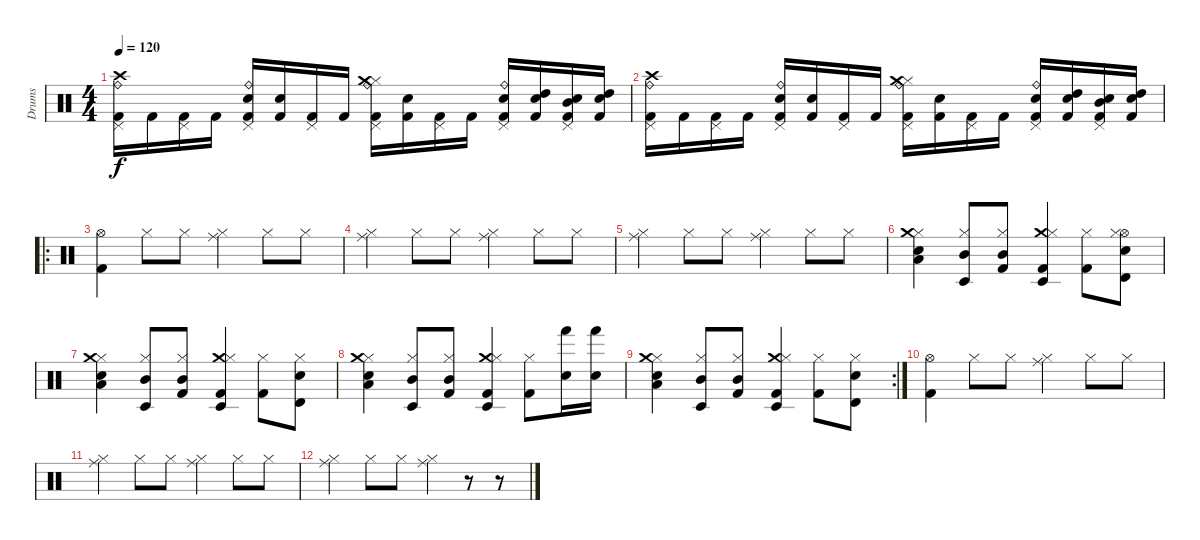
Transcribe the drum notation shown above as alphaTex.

\track ("Drums" "Drums") {instrument percussion}
\staff {score}
\articulation defaults
\ts (4 4)
\tempo 120
\clef neutral
\ks c
("Pedal Hi-Hat (hit)" "Ride (bell)" "Kick (hit) 2" "Crash high (hit)").16{dy f} "Kick (hit) 2".16 ("Pedal Hi-Hat (hit)" "Kick (hit) 2").16 "Kick (hit) 2".16 ("Electric Snare (hit)" "Ride (bell)" "Kick (hit) 2" "Pedal Hi-Hat (hit)").16 ("Electric Snare (hit)" "Kick (hit) 2").16 ("Kick (hit) 2" "Pedal Hi-Hat (hit)").16 "Kick (hit) 2".16 ("Hi-Hat (closed)" "Ride (bell)" "Kick (hit) 2" "Pedal Hi-Hat (hit)" "Crash medium (hit)").16 ("Electric Snare (hit)" "Kick (hit) 2").16 ("Kick (hit) 2" "Pedal Hi-Hat (hit)").16 "Kick (hit) 2".16 ("Electric Snare (hit)" "Ride (bell)" "Kick (hit) 2" "Pedal Hi-Hat (hit)").16 ("Electric Snare (hit)" "High Tom (hit)" "Kick (hit) 2").16 ("Electric Snare (hit)" "Mid Tom (hit)" "Kick (hit) 2" "Pedal Hi-Hat (hit)").16 ("Electric Snare (hit)" "High Tom (hit)" "Kick (hit) 2").16 |
("Pedal Hi-Hat (hit)" "Ride (bell)" "Kick (hit) 2" "Crash high (hit)").16 "Kick (hit) 2".16 ("Pedal Hi-Hat (hit)" "Kick (hit) 2").16 "Kick (hit) 2".16 ("Electric Snare (hit)" "Ride (bell)" "Kick (hit) 2" "Pedal Hi-Hat (hit)").16 ("Electric Snare (hit)" "Kick (hit) 2").16 ("Kick (hit) 2" "Pedal Hi-Hat (hit)").16 "Kick (hit) 2".16 ("Hi-Hat (closed)" "Ride (bell)" "Kick (hit) 2" "Pedal Hi-Hat (hit)" "Crash medium (hit)").16 ("Electric Snare (hit)" "Kick (hit) 2").16 ("Kick (hit) 2" "Pedal Hi-Hat (hit)").16 "Kick (hit) 2".16 ("Electric Snare (hit)" "Ride (bell)" "Kick (hit) 2" "Pedal Hi-Hat (hit)").16 ("Electric Snare (hit)" "High Tom (hit)" "Kick (hit) 2").16 ("Electric Snare (hit)" "Mid Tom (hit)" "Kick (hit) 2" "Pedal Hi-Hat (hit)").16 ("Electric Snare (hit)" "High Tom (hit)" "Kick (hit) 2").16 |
\ro
("Hi-Hat (open)" "Kick (hit) 2").4 "Hi-Hat (closed)".8 "Hi-Hat (closed)".8 ("Hi-Hat (closed)" "Ride (middle)").4 "Hi-Hat (closed)".8 "Hi-Hat (closed)".8 |
("Hi-Hat (closed)" "Ride (middle)").4 "Hi-Hat (closed)".8 "Hi-Hat (closed)".8 ("Hi-Hat (closed)" "Ride (middle)").4 "Hi-Hat (closed)".8 "Hi-Hat (closed)".8 |
("Hi-Hat (closed)" "Ride (middle)").4 "Hi-Hat (closed)".8 "Hi-Hat (closed)".8 ("Hi-Hat (closed)" "Ride (middle)").4 "Hi-Hat (closed)".8 "Hi-Hat (closed)".8 |
("Hi-Hat (closed)" "Low Tom (hit)" "Crash medium (hit)" "Electric Snare (hit)").4 ("Timbale low (hit)" "Hi-Hat (closed)" "Mid Tom (hit)").8 ("Kick (hit) 2" "Hi-Hat (closed)" "Mid Tom (hit)").8 ("Crash medium (hit)" "Hi-Hat (closed)" "Kick (hit) 2" "Timbale low (hit)").4 ("Hi-Hat (closed)" "Kick (hit) 2").8 ("Hi-Hat (open)" "Hi-Hat (closed)" "Electric Snare (hit)" "Timbale high (hit)").8 |
("Hi-Hat (closed)" "Low Tom (hit)" "Crash medium (hit)" "Electric Snare (hit)").4 ("Timbale low (hit)" "Hi-Hat (closed)" "Mid Tom (hit)").8 ("Kick (hit) 2" "Hi-Hat (closed)" "Mid Tom (hit)").8 ("Crash medium (hit)" "Hi-Hat (closed)" "Kick (hit) 2" "Timbale low (hit)").4 ("Hi-Hat (closed)" "Kick (hit) 2").8 ("Timbale high (hit)" "Hi-Hat (closed)" "Electric Snare (hit)").8 |
("Hi-Hat (closed)" "Low Tom (hit)" "Crash medium (hit)" "Snare (hit) 2").4 ("Timbale low (hit)" "Hi-Hat (closed)" "Mid Tom (hit)").8 ("Kick (hit) 2" "Hi-Hat (closed)" "Mid Tom (hit)").8 ("Crash medium (hit)" "Hi-Hat (closed)" "Kick (hit) 2" "Timbale low (hit)").4 ("Hi-Hat (closed)" "Kick (hit) 2").8 ("Hand (hit)" "Electric Snare (hit)").16 ("Hand (hit)" "Electric Snare (hit)").16 |
\rc 2
("Hi-Hat (closed)" "Low Tom (hit)" "Crash medium (hit)" "Snare (hit) 2").4 ("Timbale low (hit)" "Hi-Hat (closed)" "Mid Tom (hit)").8 ("Kick (hit) 2" "Hi-Hat (closed)" "Mid Tom (hit)").8 ("Crash medium (hit)" "Hi-Hat (closed)" "Kick (hit) 2" "Timbale low (hit)").4 ("Hi-Hat (closed)" "Kick (hit) 2").8 ("Timbale high (hit)" "Hi-Hat (closed)" "Electric Snare (hit)").8 |
("Hi-Hat (open)" "Kick (hit) 2").4 "Hi-Hat (closed)".8 "Hi-Hat (closed)".8 ("Hi-Hat (closed)" "Ride (middle)").4 "Hi-Hat (closed)".8 "Hi-Hat (closed)".8 |
("Hi-Hat (closed)" "Ride (middle)").4 "Hi-Hat (closed)".8 "Hi-Hat (closed)".8 ("Hi-Hat (closed)" "Ride (middle)").4 "Hi-Hat (closed)".8 "Hi-Hat (closed)".8 |
("Hi-Hat (closed)" "Ride (middle)").4 "Hi-Hat (closed)".8 "Hi-Hat (closed)".8 ("Hi-Hat (closed)" "Ride (middle)").4 r.8 r.8
